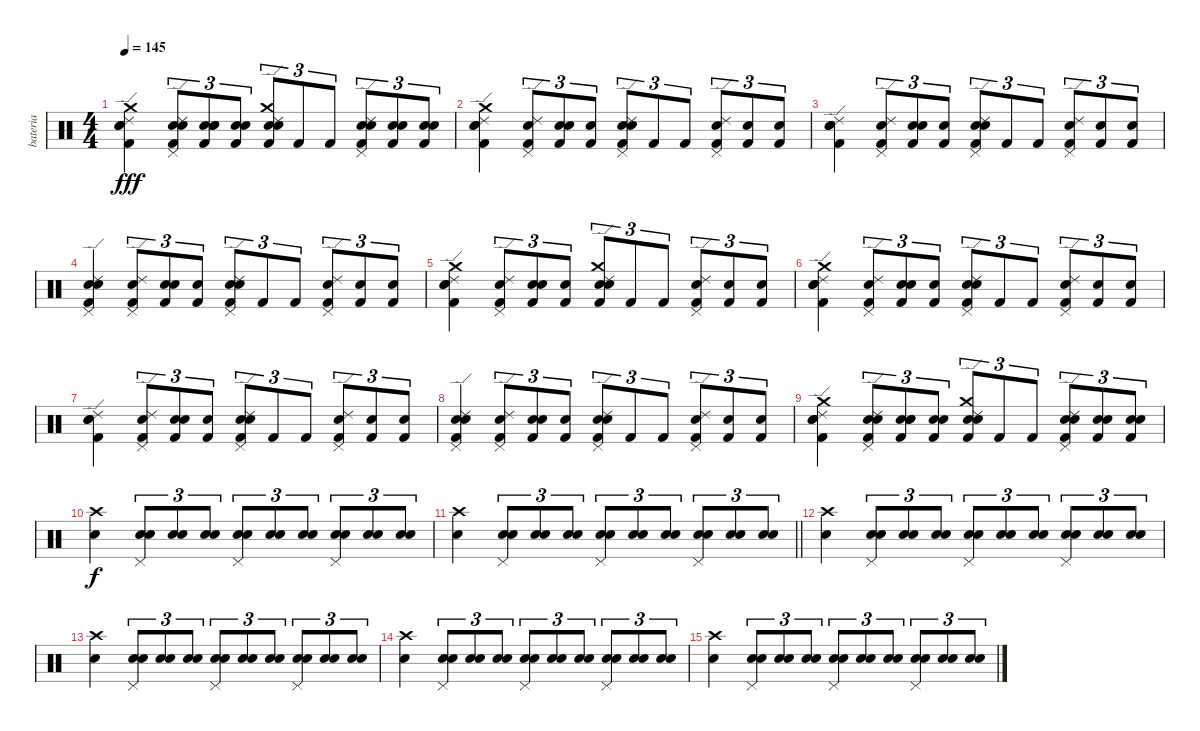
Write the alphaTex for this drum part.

\track ("bateria" "bateria") {instrument percussion}
\staff {score}
\articulation defaults
\ts (4 4)
\tempo 145
\clef neutral
\ks c
("Snare (hit)" "Kick (hit) 2" "Snare (hit) 2" "Crash medium (hit)" "Ride (edge) 2").4{dy fff} ("Snare (hit)" "Kick (hit) 2" "Snare (hit) 2" "Ride (edge) 2" "Pedal Hi-Hat (hit)").8{tu (3 2)} ("Snare (hit)" "Kick (hit) 2" "Snare (hit) 2" "Snare (hit)").8{tu (3 2)} ("Snare (hit)" "Kick (hit) 2" "Snare (hit) 2").8{tu (3 2)} ("Snare (hit)" "Kick (hit) 2" "Snare (hit) 2" "Crash medium (hit)" "Ride (edge) 2").8{tu (3 2)} "Kick (hit) 2".8{tu (3 2)} "Kick (hit) 2".8{tu (3 2)} ("Snare (hit)" "Kick (hit) 2" "Snare (hit) 2" "Ride (edge) 2" "Pedal Hi-Hat (hit)").8{tu (3 2)} ("Snare (hit)" "Kick (hit) 2" "Snare (hit) 2").8{tu (3 2)} ("Snare (hit)" "Kick (hit) 2" "Snare (hit) 2").8{tu (3 2)} |
("Snare (hit)" "Kick (hit) 2" "Snare (hit) 2" "Crash medium (hit)" "Ride (edge) 2").4 ("Snare (hit)" "Kick (hit) 2" "Ride (edge) 2" "Pedal Hi-Hat (hit)").8{tu (3 2)} ("Snare (hit)" "Kick (hit) 2" "Snare (hit)").8{tu (3 2)} ("Snare (hit)" "Kick (hit) 2").8{tu (3 2)} ("Snare (hit)" "Kick (hit) 2" "Snare (hit) 2" "Ride (edge) 2" "Pedal Hi-Hat (hit)").8{tu (3 2)} "Kick (hit) 2".8{tu (3 2)} "Kick (hit) 2".8{tu (3 2)} ("Snare (hit)" "Kick (hit) 2" "Ride (edge) 2" "Pedal Hi-Hat (hit)").8{tu (3 2)} ("Snare (hit)" "Kick (hit) 2").8{tu (3 2)} ("Snare (hit)" "Kick (hit) 2").8{tu (3 2)} |
("Snare (hit)" "Kick (hit) 2" "Snare (hit) 2" "Ride (edge) 2").4 ("Snare (hit)" "Kick (hit) 2" "Ride (edge) 2" "Pedal Hi-Hat (hit)").8{tu (3 2)} ("Snare (hit)" "Kick (hit) 2" "Snare (hit)").8{tu (3 2)} ("Snare (hit)" "Kick (hit) 2").8{tu (3 2)} ("Snare (hit)" "Kick (hit) 2" "Snare (hit) 2" "Ride (edge) 2" "Pedal Hi-Hat (hit)").8{tu (3 2)} "Kick (hit) 2".8{tu (3 2)} "Kick (hit) 2".8{tu (3 2)} ("Snare (hit)" "Kick (hit) 2" "Ride (edge) 2" "Pedal Hi-Hat (hit)").8{tu (3 2)} ("Snare (hit)" "Kick (hit) 2").8{tu (3 2)} ("Snare (hit)" "Kick (hit) 2").8{tu (3 2)} |
("Snare (hit)" "Kick (hit) 2" "Snare (hit) 2" "Ride (edge) 2" "Pedal Hi-Hat (hit)").4 ("Snare (hit)" "Kick (hit) 2" "Ride (edge) 2" "Pedal Hi-Hat (hit)").8{tu (3 2)} ("Snare (hit)" "Kick (hit) 2" "Snare (hit)").8{tu (3 2)} ("Snare (hit)" "Kick (hit) 2").8{tu (3 2)} ("Snare (hit)" "Kick (hit) 2" "Snare (hit) 2" "Ride (edge) 2" "Pedal Hi-Hat (hit)").8{tu (3 2)} "Kick (hit) 2".8{tu (3 2)} "Kick (hit) 2".8{tu (3 2)} ("Snare (hit)" "Kick (hit) 2" "Ride (edge) 2" "Pedal Hi-Hat (hit)").8{tu (3 2)} ("Snare (hit)" "Kick (hit) 2").8{tu (3 2)} ("Snare (hit)" "Kick (hit) 2").8{tu (3 2)} |
("Snare (hit)" "Kick (hit) 2" "Snare (hit) 2" "Crash medium (hit)" "Ride (edge) 2").4 ("Snare (hit)" "Kick (hit) 2" "Ride (edge) 2" "Pedal Hi-Hat (hit)").8{tu (3 2)} ("Snare (hit)" "Kick (hit) 2" "Snare (hit)").8{tu (3 2)} ("Snare (hit)" "Kick (hit) 2").8{tu (3 2)} ("Snare (hit)" "Kick (hit) 2" "Snare (hit) 2" "Crash medium (hit)" "Ride (edge) 2").8{tu (3 2)} "Kick (hit) 2".8{tu (3 2)} "Kick (hit) 2".8{tu (3 2)} ("Snare (hit)" "Kick (hit) 2" "Ride (edge) 2" "Pedal Hi-Hat (hit)").8{tu (3 2)} ("Snare (hit)" "Kick (hit) 2").8{tu (3 2)} ("Snare (hit)" "Kick (hit) 2").8{tu (3 2)} |
("Snare (hit)" "Kick (hit) 2" "Snare (hit) 2" "Crash medium (hit)" "Ride (edge) 2").4 ("Snare (hit)" "Kick (hit) 2" "Ride (edge) 2" "Pedal Hi-Hat (hit)").8{tu (3 2)} ("Snare (hit)" "Kick (hit) 2" "Snare (hit)").8{tu (3 2)} ("Snare (hit)" "Kick (hit) 2").8{tu (3 2)} ("Snare (hit)" "Kick (hit) 2" "Snare (hit) 2" "Ride (edge) 2" "Pedal Hi-Hat (hit)").8{tu (3 2)} "Kick (hit) 2".8{tu (3 2)} "Kick (hit) 2".8{tu (3 2)} ("Snare (hit)" "Kick (hit) 2" "Ride (edge) 2" "Pedal Hi-Hat (hit)").8{tu (3 2)} ("Snare (hit)" "Kick (hit) 2").8{tu (3 2)} ("Snare (hit)" "Kick (hit) 2").8{tu (3 2)} |
("Snare (hit)" "Kick (hit) 2" "Snare (hit) 2" "Ride (edge) 2").4 ("Snare (hit)" "Kick (hit) 2" "Ride (edge) 2" "Pedal Hi-Hat (hit)").8{tu (3 2)} ("Snare (hit)" "Kick (hit) 2" "Snare (hit)").8{tu (3 2)} ("Snare (hit)" "Kick (hit) 2").8{tu (3 2)} ("Snare (hit)" "Kick (hit) 2" "Snare (hit) 2" "Ride (edge) 2" "Pedal Hi-Hat (hit)").8{tu (3 2)} "Kick (hit) 2".8{tu (3 2)} "Kick (hit) 2".8{tu (3 2)} ("Snare (hit)" "Kick (hit) 2" "Ride (edge) 2" "Pedal Hi-Hat (hit)").8{tu (3 2)} ("Snare (hit)" "Kick (hit) 2").8{tu (3 2)} ("Snare (hit)" "Kick (hit) 2").8{tu (3 2)} |
("Snare (hit)" "Kick (hit) 2" "Snare (hit) 2" "Ride (edge) 2" "Pedal Hi-Hat (hit)").4 ("Snare (hit)" "Kick (hit) 2" "Ride (edge) 2" "Pedal Hi-Hat (hit)").8{tu (3 2)} ("Snare (hit)" "Kick (hit) 2" "Snare (hit)").8{tu (3 2)} ("Snare (hit)" "Kick (hit) 2").8{tu (3 2)} ("Snare (hit)" "Kick (hit) 2" "Snare (hit) 2" "Ride (edge) 2" "Pedal Hi-Hat (hit)").8{tu (3 2)} "Kick (hit) 2".8{tu (3 2)} "Kick (hit) 2".8{tu (3 2)} ("Snare (hit)" "Kick (hit) 2" "Ride (edge) 2" "Pedal Hi-Hat (hit)").8{tu (3 2)} ("Snare (hit)" "Kick (hit) 2").8{tu (3 2)} ("Snare (hit)" "Kick (hit) 2").8{tu (3 2)} |
("Snare (hit)" "Kick (hit) 2" "Snare (hit) 2" "Crash medium (hit)" "Ride (edge) 2").4 ("Snare (hit)" "Kick (hit) 2" "Snare (hit) 2" "Ride (edge) 2" "Pedal Hi-Hat (hit)").8{tu (3 2)} ("Snare (hit)" "Kick (hit) 2" "Snare (hit) 2" "Snare (hit)").8{tu (3 2)} ("Snare (hit)" "Kick (hit) 2" "Snare (hit) 2").8{tu (3 2)} ("Snare (hit)" "Kick (hit) 2" "Snare (hit) 2" "Crash medium (hit)" "Ride (edge) 2").8{tu (3 2)} "Kick (hit) 2".8{tu (3 2)} "Kick (hit) 2".8{tu (3 2)} ("Snare (hit)" "Kick (hit) 2" "Snare (hit) 2" "Ride (edge) 2" "Pedal Hi-Hat (hit)").8{tu (3 2)} ("Snare (hit)" "Kick (hit) 2" "Snare (hit) 2").8{tu (3 2)} ("Snare (hit)" "Kick (hit) 2" "Snare (hit) 2").8{tu (3 2)} |
("Snare (hit)" "Crash high (hit)").4{dy f} ("Snare (hit)" "Snare (hit) 2" "Pedal Hi-Hat (hit)").8{tu (3 2)} ("Snare (hit)" "Snare (hit) 2").8{tu (3 2)} ("Snare (hit)" "Snare (hit) 2").8{tu (3 2)} ("Snare (hit)" "Snare (hit) 2" "Pedal Hi-Hat (hit)").8{tu (3 2)} ("Snare (hit)" "Snare (hit) 2").8{tu (3 2)} ("Snare (hit)" "Snare (hit) 2").8{tu (3 2)} ("Snare (hit)" "Snare (hit) 2" "Pedal Hi-Hat (hit)").8{tu (3 2)} ("Snare (hit)" "Snare (hit) 2").8{tu (3 2)} ("Snare (hit)" "Snare (hit) 2").8{tu (3 2)} |
\barLineRight lightlight
("Snare (hit)" "Crash high (hit)").4 ("Snare (hit)" "Snare (hit) 2" "Pedal Hi-Hat (hit)").8{tu (3 2)} ("Snare (hit)" "Snare (hit) 2").8{tu (3 2)} ("Snare (hit)" "Snare (hit) 2").8{tu (3 2)} ("Snare (hit)" "Snare (hit) 2" "Pedal Hi-Hat (hit)").8{tu (3 2)} ("Snare (hit)" "Snare (hit) 2").8{tu (3 2)} ("Snare (hit)" "Snare (hit) 2").8{tu (3 2)} ("Snare (hit)" "Snare (hit) 2" "Pedal Hi-Hat (hit)").8{tu (3 2)} ("Snare (hit)" "Snare (hit) 2").8{tu (3 2)} ("Snare (hit)" "Snare (hit) 2").8{tu (3 2)} |
("Snare (hit)" "Crash high (hit)").4 ("Snare (hit)" "Snare (hit) 2" "Pedal Hi-Hat (hit)").8{tu (3 2)} ("Snare (hit)" "Snare (hit) 2").8{tu (3 2)} ("Snare (hit)" "Snare (hit) 2").8{tu (3 2)} ("Snare (hit)" "Snare (hit) 2" "Pedal Hi-Hat (hit)").8{tu (3 2)} ("Snare (hit)" "Snare (hit) 2").8{tu (3 2)} ("Snare (hit)" "Snare (hit) 2").8{tu (3 2)} ("Snare (hit)" "Snare (hit) 2" "Pedal Hi-Hat (hit)").8{tu (3 2)} ("Snare (hit)" "Snare (hit) 2").8{tu (3 2)} ("Snare (hit)" "Snare (hit) 2").8{tu (3 2)} |
("Snare (hit)" "Crash high (hit)").4 ("Snare (hit)" "Snare (hit) 2" "Pedal Hi-Hat (hit)").8{tu (3 2)} ("Snare (hit)" "Snare (hit) 2").8{tu (3 2)} ("Snare (hit)" "Snare (hit) 2").8{tu (3 2)} ("Snare (hit)" "Snare (hit) 2" "Pedal Hi-Hat (hit)").8{tu (3 2)} ("Snare (hit)" "Snare (hit) 2").8{tu (3 2)} ("Snare (hit)" "Snare (hit) 2").8{tu (3 2)} ("Snare (hit)" "Snare (hit) 2" "Pedal Hi-Hat (hit)").8{tu (3 2)} ("Snare (hit)" "Snare (hit) 2").8{tu (3 2)} ("Snare (hit)" "Snare (hit) 2").8{tu (3 2)} |
("Snare (hit)" "Crash high (hit)").4 ("Snare (hit)" "Snare (hit) 2" "Pedal Hi-Hat (hit)").8{tu (3 2)} ("Snare (hit)" "Snare (hit) 2").8{tu (3 2)} ("Snare (hit)" "Snare (hit) 2").8{tu (3 2)} ("Snare (hit)" "Snare (hit) 2" "Pedal Hi-Hat (hit)").8{tu (3 2)} ("Snare (hit)" "Snare (hit) 2").8{tu (3 2)} ("Snare (hit)" "Snare (hit) 2").8{tu (3 2)} ("Snare (hit)" "Snare (hit) 2" "Pedal Hi-Hat (hit)").8{tu (3 2)} ("Snare (hit)" "Snare (hit) 2").8{tu (3 2)} ("Snare (hit)" "Snare (hit) 2").8{tu (3 2)} |
("Snare (hit)" "Crash high (hit)").4 ("Snare (hit)" "Snare (hit) 2" "Pedal Hi-Hat (hit)").8{tu (3 2)} ("Snare (hit)" "Snare (hit) 2").8{tu (3 2)} ("Snare (hit)" "Snare (hit) 2").8{tu (3 2)} ("Snare (hit)" "Snare (hit) 2" "Pedal Hi-Hat (hit)").8{tu (3 2)} ("Snare (hit)" "Snare (hit) 2").8{tu (3 2)} ("Snare (hit)" "Snare (hit) 2").8{tu (3 2)} ("Snare (hit)" "Snare (hit) 2" "Pedal Hi-Hat (hit)").8{tu (3 2)} ("Snare (hit)" "Snare (hit) 2").8{tu (3 2)} ("Snare (hit)" "Snare (hit) 2").8{tu (3 2)}
